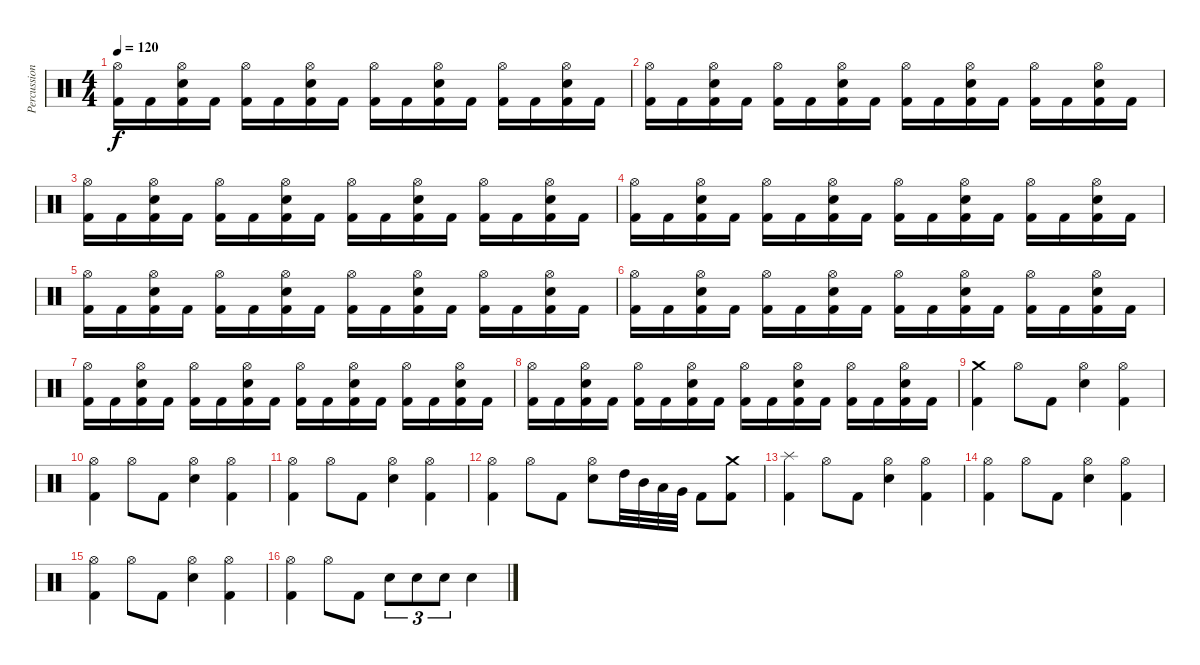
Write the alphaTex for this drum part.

\track ("Percussion" "Percussion") {instrument percussion}
\staff {score}
\articulation defaults
\ts (4 4)
\tempo 120
\clef neutral
\ks c
("Hi-Hat (open)" "Kick (hit) 2").16{dy f} "Kick (hit) 2".16 ("Hi-Hat (open)" "Electric Snare (hit)" "Kick (hit) 2").16 "Kick (hit) 2".16 ("Hi-Hat (open)" "Kick (hit) 2").16 "Kick (hit) 2".16 ("Hi-Hat (open)" "Electric Snare (hit)" "Kick (hit) 2").16 "Kick (hit) 2".16 ("Hi-Hat (open)" "Kick (hit) 2").16 "Kick (hit) 2".16 ("Hi-Hat (open)" "Electric Snare (hit)" "Kick (hit) 2").16 "Kick (hit) 2".16 ("Hi-Hat (open)" "Kick (hit) 2").16 "Kick (hit) 2".16 ("Hi-Hat (open)" "Electric Snare (hit)" "Kick (hit) 2").16 "Kick (hit) 2".16 |
("Hi-Hat (open)" "Kick (hit) 2").16 "Kick (hit) 2".16 ("Hi-Hat (open)" "Electric Snare (hit)" "Kick (hit) 2").16 "Kick (hit) 2".16 ("Hi-Hat (open)" "Kick (hit) 2").16 "Kick (hit) 2".16 ("Hi-Hat (open)" "Electric Snare (hit)" "Kick (hit) 2").16 "Kick (hit) 2".16 ("Hi-Hat (open)" "Kick (hit) 2").16 "Kick (hit) 2".16 ("Hi-Hat (open)" "Electric Snare (hit)" "Kick (hit) 2").16 "Kick (hit) 2".16 ("Hi-Hat (open)" "Kick (hit) 2").16 "Kick (hit) 2".16 ("Hi-Hat (open)" "Electric Snare (hit)" "Kick (hit) 2").16 "Kick (hit) 2".16 |
("Hi-Hat (open)" "Kick (hit) 2").16 "Kick (hit) 2".16 ("Hi-Hat (open)" "Electric Snare (hit)" "Kick (hit) 2").16 "Kick (hit) 2".16 ("Hi-Hat (open)" "Kick (hit) 2").16 "Kick (hit) 2".16 ("Hi-Hat (open)" "Electric Snare (hit)" "Kick (hit) 2").16 "Kick (hit) 2".16 ("Hi-Hat (open)" "Kick (hit) 2").16 "Kick (hit) 2".16 ("Hi-Hat (open)" "Electric Snare (hit)" "Kick (hit) 2").16 "Kick (hit) 2".16 ("Hi-Hat (open)" "Kick (hit) 2").16 "Kick (hit) 2".16 ("Hi-Hat (open)" "Electric Snare (hit)" "Kick (hit) 2").16 "Kick (hit) 2".16 |
("Hi-Hat (open)" "Kick (hit) 2").16 "Kick (hit) 2".16 ("Hi-Hat (open)" "Electric Snare (hit)" "Kick (hit) 2").16 "Kick (hit) 2".16 ("Hi-Hat (open)" "Kick (hit) 2").16 "Kick (hit) 2".16 ("Hi-Hat (open)" "Electric Snare (hit)" "Kick (hit) 2").16 "Kick (hit) 2".16 ("Hi-Hat (open)" "Kick (hit) 2").16 "Kick (hit) 2".16 ("Hi-Hat (open)" "Electric Snare (hit)" "Kick (hit) 2").16 "Kick (hit) 2".16 ("Hi-Hat (open)" "Kick (hit) 2").16 "Kick (hit) 2".16 ("Hi-Hat (open)" "Electric Snare (hit)" "Kick (hit) 2").16 "Kick (hit) 2".16 |
("Hi-Hat (open)" "Kick (hit) 2").16 "Kick (hit) 2".16 ("Hi-Hat (open)" "Electric Snare (hit)" "Kick (hit) 2").16 "Kick (hit) 2".16 ("Hi-Hat (open)" "Kick (hit) 2").16 "Kick (hit) 2".16 ("Hi-Hat (open)" "Electric Snare (hit)" "Kick (hit) 2").16 "Kick (hit) 2".16 ("Hi-Hat (open)" "Kick (hit) 2").16 "Kick (hit) 2".16 ("Hi-Hat (open)" "Electric Snare (hit)" "Kick (hit) 2").16 "Kick (hit) 2".16 ("Hi-Hat (open)" "Kick (hit) 2").16 "Kick (hit) 2".16 ("Hi-Hat (open)" "Electric Snare (hit)" "Kick (hit) 2").16 "Kick (hit) 2".16 |
("Hi-Hat (open)" "Kick (hit) 2").16 "Kick (hit) 2".16 ("Hi-Hat (open)" "Electric Snare (hit)" "Kick (hit) 2").16 "Kick (hit) 2".16 ("Hi-Hat (open)" "Kick (hit) 2").16 "Kick (hit) 2".16 ("Hi-Hat (open)" "Electric Snare (hit)" "Kick (hit) 2").16 "Kick (hit) 2".16 ("Hi-Hat (open)" "Kick (hit) 2").16 "Kick (hit) 2".16 ("Hi-Hat (open)" "Electric Snare (hit)" "Kick (hit) 2").16 "Kick (hit) 2".16 ("Hi-Hat (open)" "Kick (hit) 2").16 "Kick (hit) 2".16 ("Hi-Hat (open)" "Electric Snare (hit)" "Kick (hit) 2").16 "Kick (hit) 2".16 |
("Hi-Hat (open)" "Kick (hit) 2").16 "Kick (hit) 2".16 ("Hi-Hat (open)" "Electric Snare (hit)" "Kick (hit) 2").16 "Kick (hit) 2".16 ("Hi-Hat (open)" "Kick (hit) 2").16 "Kick (hit) 2".16 ("Hi-Hat (open)" "Electric Snare (hit)" "Kick (hit) 2").16 "Kick (hit) 2".16 ("Hi-Hat (open)" "Kick (hit) 2").16 "Kick (hit) 2".16 ("Hi-Hat (open)" "Electric Snare (hit)" "Kick (hit) 2").16 "Kick (hit) 2".16 ("Hi-Hat (open)" "Kick (hit) 2").16 "Kick (hit) 2".16 ("Hi-Hat (open)" "Electric Snare (hit)" "Kick (hit) 2").16 "Kick (hit) 2".16 |
("Hi-Hat (open)" "Kick (hit) 2").16 "Kick (hit) 2".16 ("Hi-Hat (open)" "Electric Snare (hit)" "Kick (hit) 2").16 "Kick (hit) 2".16 ("Hi-Hat (open)" "Kick (hit) 2").16 "Kick (hit) 2".16 ("Hi-Hat (open)" "Electric Snare (hit)" "Kick (hit) 2").16 "Kick (hit) 2".16 ("Hi-Hat (open)" "Kick (hit) 2").16 "Kick (hit) 2".16 ("Hi-Hat (open)" "Electric Snare (hit)" "Kick (hit) 2").16 "Kick (hit) 2".16 ("Hi-Hat (open)" "Kick (hit) 2").16 "Kick (hit) 2".16 ("Hi-Hat (open)" "Electric Snare (hit)" "Kick (hit) 2").16 "Kick (hit) 2".16 |
("Crash medium (hit)" "Kick (hit) 2").4 "Hi-Hat (open)".8 "Kick (hit) 2".8 ("Hi-Hat (open)" "Electric Snare (hit)").4 ("Hi-Hat (open)" "Kick (hit) 2").4 |
("Hi-Hat (open)" "Kick (hit) 2").4 "Hi-Hat (open)".8 "Kick (hit) 2".8 ("Hi-Hat (open)" "Electric Snare (hit)").4 ("Hi-Hat (open)" "Kick (hit) 2").4 |
("Hi-Hat (open)" "Kick (hit) 2").4 "Hi-Hat (open)".8 "Kick (hit) 2".8 ("Hi-Hat (open)" "Electric Snare (hit)").4 ("Hi-Hat (open)" "Kick (hit) 2").4 |
("Hi-Hat (open)" "Kick (hit) 2").4 "Hi-Hat (open)".8 "Kick (hit) 2".8 ("Hi-Hat (open)" "Electric Snare (hit)").8 "High Tom (hit)".32 "Mid Tom (hit)".32 "Low Tom (hit)".32 "Very Low Tom (hit)".32 "Kick (hit) 2".8 ("Crash medium (hit)" "Kick (hit) 2").8 |
("Splash (hit)" "Kick (hit) 2").4 "Hi-Hat (open)".8 "Kick (hit) 2".8 ("Hi-Hat (open)" "Electric Snare (hit)").4 ("Hi-Hat (open)" "Kick (hit) 2").4 |
("Hi-Hat (open)" "Kick (hit) 2").4 "Hi-Hat (open)".8 "Kick (hit) 2".8 ("Hi-Hat (open)" "Electric Snare (hit)").4 ("Hi-Hat (open)" "Kick (hit) 2").4 |
("Hi-Hat (open)" "Kick (hit) 2").4 "Hi-Hat (open)".8 "Kick (hit) 2".8 ("Hi-Hat (open)" "Electric Snare (hit)").4 ("Hi-Hat (open)" "Kick (hit) 2").4 |
("Hi-Hat (open)" "Kick (hit) 2").4 "Hi-Hat (open)".8 "Kick (hit) 2".8 "Electric Snare (hit)".8{tu (3 2)} "Electric Snare (hit)".8{tu (3 2)} "Electric Snare (hit)".8{tu (3 2)} "Electric Snare (hit)".4
